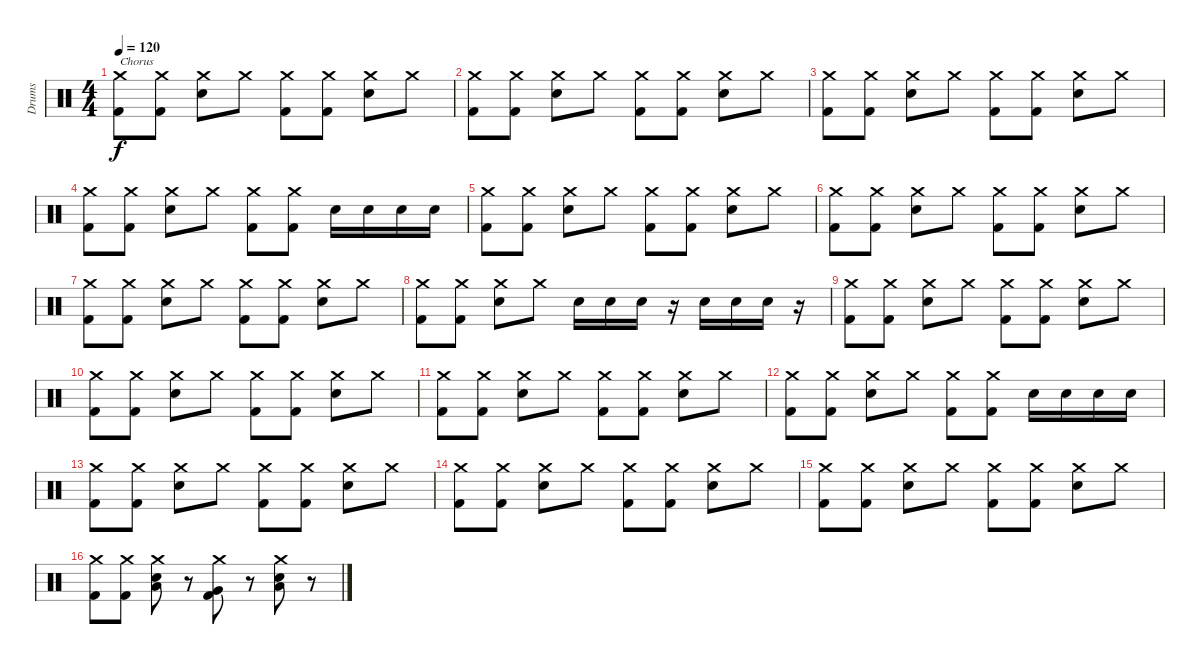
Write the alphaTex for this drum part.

\track ("Drums" "Drums") {instrument percussion}
\staff {score}
\articulation defaults
\ts (4 4)
\tempo 120
\clef neutral
\ks c
("Crash medium (hit)" "Kick (hit) 2").8{txt "Chorus" dy f} ("Crash medium (hit)" "Kick (hit) 2").8 ("Crash medium (hit)" "Electric Snare (hit)").8 "Crash medium (hit)".8 ("Crash medium (hit)" "Kick (hit) 2").8 ("Crash medium (hit)" "Kick (hit) 2").8 ("Crash medium (hit)" "Electric Snare (hit)").8 "Crash medium (hit)".8 |
("Crash medium (hit)" "Kick (hit) 2").8 ("Crash medium (hit)" "Kick (hit) 2").8 ("Crash medium (hit)" "Electric Snare (hit)").8 "Crash medium (hit)".8 ("Crash medium (hit)" "Kick (hit) 2").8 ("Crash medium (hit)" "Kick (hit) 2").8 ("Crash medium (hit)" "Electric Snare (hit)").8 "Crash medium (hit)".8 |
("Crash medium (hit)" "Kick (hit) 2").8 ("Crash medium (hit)" "Kick (hit) 2").8 ("Crash medium (hit)" "Electric Snare (hit)").8 "Crash medium (hit)".8 ("Crash medium (hit)" "Kick (hit) 2").8 ("Crash medium (hit)" "Kick (hit) 2").8 ("Crash medium (hit)" "Electric Snare (hit)").8 "Crash medium (hit)".8 |
("Crash medium (hit)" "Kick (hit) 2").8 ("Crash medium (hit)" "Kick (hit) 2").8 ("Crash medium (hit)" "Electric Snare (hit)").8 "Crash medium (hit)".8 ("Crash medium (hit)" "Kick (hit) 2").8 ("Crash medium (hit)" "Kick (hit) 2").8 "Electric Snare (hit)".16 "Electric Snare (hit)".16 "Electric Snare (hit)".16 "Electric Snare (hit)".16 |
("Crash medium (hit)" "Kick (hit) 2").8 ("Crash medium (hit)" "Kick (hit) 2").8 ("Crash medium (hit)" "Electric Snare (hit)").8 "Crash medium (hit)".8 ("Crash medium (hit)" "Kick (hit) 2").8 ("Crash medium (hit)" "Kick (hit) 2").8 ("Crash medium (hit)" "Electric Snare (hit)").8 "Crash medium (hit)".8 |
("Crash medium (hit)" "Kick (hit) 2").8 ("Crash medium (hit)" "Kick (hit) 2").8 ("Crash medium (hit)" "Electric Snare (hit)").8 "Crash medium (hit)".8 ("Crash medium (hit)" "Kick (hit) 2").8 ("Crash medium (hit)" "Kick (hit) 2").8 ("Crash medium (hit)" "Electric Snare (hit)").8 "Crash medium (hit)".8 |
("Crash medium (hit)" "Kick (hit) 2").8 ("Crash medium (hit)" "Kick (hit) 2").8 ("Crash medium (hit)" "Electric Snare (hit)").8 "Crash medium (hit)".8 ("Crash medium (hit)" "Kick (hit) 2").8 ("Crash medium (hit)" "Kick (hit) 2").8 ("Crash medium (hit)" "Electric Snare (hit)").8 "Crash medium (hit)".8 |
("Crash medium (hit)" "Kick (hit) 2").8 ("Crash medium (hit)" "Kick (hit) 2").8 ("Crash medium (hit)" "Electric Snare (hit)").8 "Crash medium (hit)".8 "Electric Snare (hit)".16 "Electric Snare (hit)".16 "Electric Snare (hit)".16 r.16 "Electric Snare (hit)".16 "Electric Snare (hit)".16 "Electric Snare (hit)".16 r.16 |
("Crash medium (hit)" "Kick (hit) 2").8 ("Crash medium (hit)" "Kick (hit) 2").8 ("Crash medium (hit)" "Electric Snare (hit)").8 "Crash medium (hit)".8 ("Crash medium (hit)" "Kick (hit) 2").8 ("Crash medium (hit)" "Kick (hit) 2").8 ("Crash medium (hit)" "Electric Snare (hit)").8 "Crash medium (hit)".8 |
("Crash medium (hit)" "Kick (hit) 2").8 ("Crash medium (hit)" "Kick (hit) 2").8 ("Crash medium (hit)" "Electric Snare (hit)").8 "Crash medium (hit)".8 ("Crash medium (hit)" "Kick (hit) 2").8 ("Crash medium (hit)" "Kick (hit) 2").8 ("Crash medium (hit)" "Electric Snare (hit)").8 "Crash medium (hit)".8 |
("Crash medium (hit)" "Kick (hit) 2").8 ("Crash medium (hit)" "Kick (hit) 2").8 ("Crash medium (hit)" "Electric Snare (hit)").8 "Crash medium (hit)".8 ("Crash medium (hit)" "Kick (hit) 2").8 ("Crash medium (hit)" "Kick (hit) 2").8 ("Crash medium (hit)" "Electric Snare (hit)").8 "Crash medium (hit)".8 |
("Crash medium (hit)" "Kick (hit) 2").8 ("Crash medium (hit)" "Kick (hit) 2").8 ("Crash medium (hit)" "Electric Snare (hit)").8 "Crash medium (hit)".8 ("Crash medium (hit)" "Kick (hit) 2").8 ("Crash medium (hit)" "Kick (hit) 2").8 "Electric Snare (hit)".16 "Electric Snare (hit)".16 "Electric Snare (hit)".16 "Electric Snare (hit)".16 |
("Crash medium (hit)" "Kick (hit) 2").8 ("Crash medium (hit)" "Kick (hit) 2").8 ("Crash medium (hit)" "Electric Snare (hit)").8 "Crash medium (hit)".8 ("Crash medium (hit)" "Kick (hit) 2").8 ("Crash medium (hit)" "Kick (hit) 2").8 ("Crash medium (hit)" "Electric Snare (hit)").8 "Crash medium (hit)".8 |
("Crash medium (hit)" "Kick (hit) 2").8 ("Crash medium (hit)" "Kick (hit) 2").8 ("Crash medium (hit)" "Electric Snare (hit)").8 "Crash medium (hit)".8 ("Crash medium (hit)" "Kick (hit) 2").8 ("Crash medium (hit)" "Kick (hit) 2").8 ("Crash medium (hit)" "Electric Snare (hit)").8 "Crash medium (hit)".8 |
("Crash medium (hit)" "Kick (hit) 2").8 ("Crash medium (hit)" "Kick (hit) 2").8 ("Crash medium (hit)" "Electric Snare (hit)").8 "Crash medium (hit)".8 ("Crash medium (hit)" "Kick (hit) 2").8 ("Crash medium (hit)" "Kick (hit) 2").8 ("Crash medium (hit)" "Electric Snare (hit)").8 "Crash medium (hit)".8 |
("Crash medium (hit)" "Kick (hit) 2").8 ("Crash medium (hit)" "Kick (hit) 2").8 ("Low Floor Tom (hit)" "Crash medium (hit)" "Electric Snare (hit)").8 r.8 ("Very Low Tom (hit)" "Crash medium (hit)" "Kick (hit) 2").8 r.8 ("Low Tom (hit)" "Crash medium (hit)" "Electric Snare (hit)").8 r.8
